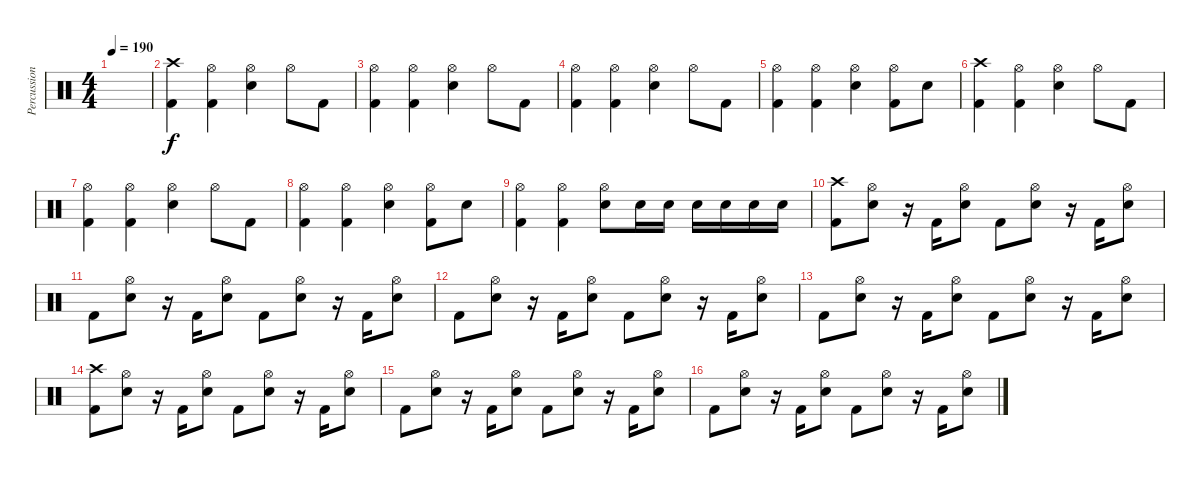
\track ("Percussions" "Percussion") {instrument percussion}
\staff {score}
\articulation defaults
\ts (4 4)
\tempo 190
\clef neutral
\ks c
|
("Crash high (hit)" "Kick (hit) 2").4 ("Hi-Hat (open)" "Kick (hit) 2").4 ("Hi-Hat (open)" "Electric Snare (hit)").4 "Hi-Hat (open)".8 "Kick (hit) 2".8 |
("Hi-Hat (open)" "Kick (hit) 2").4 ("Hi-Hat (open)" "Kick (hit) 2").4 ("Hi-Hat (open)" "Electric Snare (hit)").4 "Hi-Hat (open)".8 "Kick (hit) 2".8 |
("Hi-Hat (open)" "Kick (hit) 2").4 ("Hi-Hat (open)" "Kick (hit) 2").4 ("Hi-Hat (open)" "Electric Snare (hit)").4 "Hi-Hat (open)".8 "Kick (hit) 2".8 |
("Hi-Hat (open)" "Kick (hit) 2").4 ("Hi-Hat (open)" "Kick (hit) 2").4 ("Hi-Hat (open)" "Electric Snare (hit)").4 ("Hi-Hat (open)" "Kick (hit) 2").8 "Electric Snare (hit)".8 |
("Crash high (hit)" "Kick (hit) 2").4 ("Hi-Hat (open)" "Kick (hit) 2").4 ("Hi-Hat (open)" "Electric Snare (hit)").4 "Hi-Hat (open)".8 "Kick (hit) 2".8 |
("Hi-Hat (open)" "Kick (hit) 2").4 ("Hi-Hat (open)" "Kick (hit) 2").4 ("Hi-Hat (open)" "Electric Snare (hit)").4 "Hi-Hat (open)".8 "Kick (hit) 2".8 |
("Hi-Hat (open)" "Kick (hit) 2").4 ("Hi-Hat (open)" "Kick (hit) 2").4 ("Hi-Hat (open)" "Electric Snare (hit)").4 ("Hi-Hat (open)" "Kick (hit) 2").8 "Electric Snare (hit)".8 |
("Hi-Hat (open)" "Kick (hit) 2").4 ("Hi-Hat (open)" "Kick (hit) 2").4 ("Hi-Hat (open)" "Electric Snare (hit)").8 "Electric Snare (hit)".16 "Electric Snare (hit)".16 "Electric Snare (hit)".16 "Electric Snare (hit)".16 "Electric Snare (hit)".16 "Electric Snare (hit)".16 |
("Crash high (hit)" "Kick (hit) 2").8 ("Hi-Hat (open)" "Electric Snare (hit)").8 r.16 "Kick (hit) 2".16 ("Hi-Hat (open)" "Electric Snare (hit)").8 "Kick (hit) 2".8 ("Hi-Hat (open)" "Electric Snare (hit)").8 r.16 "Kick (hit) 2".16 ("Hi-Hat (open)" "Electric Snare (hit)").8 |
"Kick (hit) 2".8 ("Hi-Hat (open)" "Electric Snare (hit)").8 r.16 "Kick (hit) 2".16 ("Hi-Hat (open)" "Electric Snare (hit)").8 "Kick (hit) 2".8 ("Hi-Hat (open)" "Electric Snare (hit)").8 r.16 "Kick (hit) 2".16 ("Hi-Hat (open)" "Electric Snare (hit)").8 |
"Kick (hit) 2".8 ("Hi-Hat (open)" "Electric Snare (hit)").8 r.16 "Kick (hit) 2".16 ("Hi-Hat (open)" "Electric Snare (hit)").8 "Kick (hit) 2".8 ("Hi-Hat (open)" "Electric Snare (hit)").8 r.16 "Kick (hit) 2".16 ("Hi-Hat (open)" "Electric Snare (hit)").8 |
"Kick (hit) 2".8 ("Hi-Hat (open)" "Electric Snare (hit)").8 r.16 "Kick (hit) 2".16 ("Hi-Hat (open)" "Electric Snare (hit)").8 "Kick (hit) 2".8 ("Hi-Hat (open)" "Electric Snare (hit)").8 r.16 "Kick (hit) 2".16 ("Hi-Hat (open)" "Electric Snare (hit)").8 |
("Crash high (hit)" "Kick (hit) 2").8 ("Hi-Hat (open)" "Electric Snare (hit)").8 r.16 "Kick (hit) 2".16 ("Hi-Hat (open)" "Electric Snare (hit)").8 "Kick (hit) 2".8 ("Hi-Hat (open)" "Electric Snare (hit)").8 r.16 "Kick (hit) 2".16 ("Hi-Hat (open)" "Electric Snare (hit)").8 |
"Kick (hit) 2".8 ("Hi-Hat (open)" "Electric Snare (hit)").8 r.16 "Kick (hit) 2".16 ("Hi-Hat (open)" "Electric Snare (hit)").8 "Kick (hit) 2".8 ("Hi-Hat (open)" "Electric Snare (hit)").8 r.16 "Kick (hit) 2".16 ("Hi-Hat (open)" "Electric Snare (hit)").8 |
"Kick (hit) 2".8 ("Hi-Hat (open)" "Electric Snare (hit)").8 r.16 "Kick (hit) 2".16 ("Hi-Hat (open)" "Electric Snare (hit)").8 "Kick (hit) 2".8 ("Hi-Hat (open)" "Electric Snare (hit)").8 r.16 "Kick (hit) 2".16 ("Hi-Hat (open)" "Electric Snare (hit)").8
